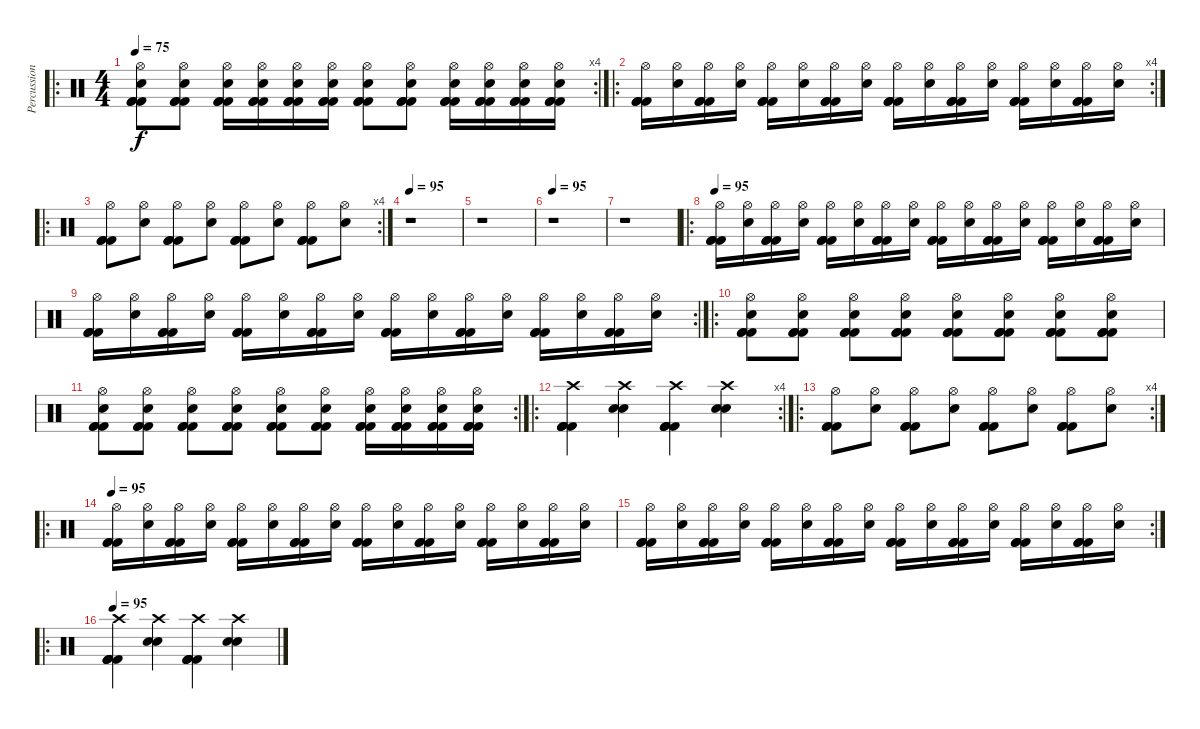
\track ("Percussion" "Percussion") {instrument percussion}
\staff {score}
\articulation defaults
\ro
\rc 4
\ts (4 4)
\tempo 75
\clef neutral
\ks c
("Hi-Hat (open)" "Snare (hit) 2" "Kick (hit) 2" "Kick (hit) 2" "Kick (hit) 2").8{dy f} ("Hi-Hat (open)" "Snare (hit) 2" "Kick (hit) 2" "Kick (hit) 2" "Kick (hit) 2").8 ("Hi-Hat (open)" "Snare (hit) 2" "Kick (hit) 2" "Kick (hit) 2" "Kick (hit) 2").16 ("Hi-Hat (open)" "Snare (hit) 2" "Kick (hit) 2" "Kick (hit) 2" "Kick (hit) 2").16 ("Hi-Hat (open)" "Snare (hit) 2" "Kick (hit) 2" "Kick (hit) 2" "Kick (hit) 2").16 ("Hi-Hat (open)" "Snare (hit) 2" "Kick (hit) 2" "Kick (hit) 2" "Kick (hit) 2").16 ("Hi-Hat (open)" "Snare (hit) 2" "Kick (hit) 2" "Kick (hit) 2" "Kick (hit) 2").8 ("Hi-Hat (open)" "Snare (hit) 2" "Kick (hit) 2" "Kick (hit) 2" "Kick (hit) 2").8 ("Hi-Hat (open)" "Snare (hit) 2" "Kick (hit) 2" "Kick (hit) 2" "Kick (hit) 2").16 ("Hi-Hat (open)" "Snare (hit) 2" "Kick (hit) 2" "Kick (hit) 2" "Kick (hit) 2").16 ("Hi-Hat (open)" "Snare (hit) 2" "Kick (hit) 2" "Kick (hit) 2" "Kick (hit) 2").16 ("Hi-Hat (open)" "Snare (hit) 2" "Kick (hit) 2" "Kick (hit) 2" "Kick (hit) 2").16 |
\ro
\rc 4
("Hi-Hat (open)" "Kick (hit) 2" "Kick (hit) 2" "Kick (hit) 2").16 ("Hi-Hat (open)" "Snare (hit) 2").16 ("Hi-Hat (open)" "Kick (hit) 2" "Kick (hit) 2" "Kick (hit) 2").16 ("Hi-Hat (open)" "Snare (hit) 2").16 ("Hi-Hat (open)" "Kick (hit) 2" "Kick (hit) 2" "Kick (hit) 2").16 ("Hi-Hat (open)" "Snare (hit) 2").16 ("Hi-Hat (open)" "Kick (hit) 2" "Kick (hit) 2" "Kick (hit) 2").16 ("Hi-Hat (open)" "Snare (hit) 2").16 ("Hi-Hat (open)" "Kick (hit) 2" "Kick (hit) 2" "Kick (hit) 2").16 ("Hi-Hat (open)" "Snare (hit) 2").16 ("Hi-Hat (open)" "Kick (hit) 2" "Kick (hit) 2" "Kick (hit) 2").16 ("Hi-Hat (open)" "Snare (hit) 2").16 ("Hi-Hat (open)" "Kick (hit) 2" "Kick (hit) 2" "Kick (hit) 2").16 ("Hi-Hat (open)" "Snare (hit) 2").16 ("Hi-Hat (open)" "Kick (hit) 2" "Kick (hit) 2" "Kick (hit) 2").16 ("Hi-Hat (open)" "Snare (hit) 2").16 |
\ro
\rc 4
("Hi-Hat (open)" "Kick (hit) 2" "Kick (hit) 2" "Kick (hit) 2").8 ("Hi-Hat (open)" "Snare (hit) 2").8 ("Hi-Hat (open)" "Kick (hit) 2" "Kick (hit) 2" "Kick (hit) 2").8 ("Hi-Hat (open)" "Snare (hit) 2").8 ("Hi-Hat (open)" "Kick (hit) 2" "Kick (hit) 2" "Kick (hit) 2").8 ("Hi-Hat (open)" "Snare (hit) 2").8 ("Hi-Hat (open)" "Kick (hit) 2" "Kick (hit) 2" "Kick (hit) 2").8 ("Hi-Hat (open)" "Snare (hit) 2").8 |
\tempo 95
r.1 |
r.1 |
\tempo 95
r.1 |
r.1 |
\ro
\tempo 95
("Hi-Hat (open)" "Kick (hit) 2" "Kick (hit) 2" "Kick (hit) 2").16 ("Hi-Hat (open)" "Snare (hit) 2").16 ("Hi-Hat (open)" "Kick (hit) 2" "Kick (hit) 2" "Kick (hit) 2").16 ("Hi-Hat (open)" "Snare (hit) 2").16 ("Hi-Hat (open)" "Kick (hit) 2" "Kick (hit) 2" "Kick (hit) 2").16 ("Hi-Hat (open)" "Snare (hit) 2").16 ("Hi-Hat (open)" "Kick (hit) 2" "Kick (hit) 2" "Kick (hit) 2").16 ("Hi-Hat (open)" "Snare (hit) 2").16 ("Hi-Hat (open)" "Kick (hit) 2" "Kick (hit) 2" "Kick (hit) 2").16 ("Hi-Hat (open)" "Snare (hit) 2").16 ("Hi-Hat (open)" "Kick (hit) 2" "Kick (hit) 2" "Kick (hit) 2").16 ("Hi-Hat (open)" "Snare (hit) 2").16 ("Hi-Hat (open)" "Kick (hit) 2" "Kick (hit) 2" "Kick (hit) 2").16 ("Hi-Hat (open)" "Snare (hit) 2").16 ("Hi-Hat (open)" "Kick (hit) 2" "Kick (hit) 2" "Kick (hit) 2").16 ("Hi-Hat (open)" "Snare (hit) 2").16 |
\rc 2
("Hi-Hat (open)" "Kick (hit) 2" "Kick (hit) 2" "Kick (hit) 2").16 ("Hi-Hat (open)" "Snare (hit) 2").16 ("Hi-Hat (open)" "Kick (hit) 2" "Kick (hit) 2" "Kick (hit) 2").16 ("Hi-Hat (open)" "Snare (hit) 2").16 ("Hi-Hat (open)" "Kick (hit) 2" "Kick (hit) 2" "Kick (hit) 2").16 ("Hi-Hat (open)" "Snare (hit) 2").16 ("Hi-Hat (open)" "Kick (hit) 2" "Kick (hit) 2" "Kick (hit) 2").16 ("Hi-Hat (open)" "Snare (hit) 2").16 ("Hi-Hat (open)" "Kick (hit) 2" "Kick (hit) 2" "Kick (hit) 2").16 ("Hi-Hat (open)" "Snare (hit) 2").16 ("Hi-Hat (open)" "Kick (hit) 2" "Kick (hit) 2" "Kick (hit) 2").16 ("Hi-Hat (open)" "Snare (hit) 2").16 ("Hi-Hat (open)" "Kick (hit) 2" "Kick (hit) 2" "Kick (hit) 2").16 ("Hi-Hat (open)" "Snare (hit) 2").16 ("Hi-Hat (open)" "Kick (hit) 2" "Kick (hit) 2" "Kick (hit) 2").16 ("Hi-Hat (open)" "Snare (hit) 2").16 |
\ro
("Hi-Hat (open)" "Snare (hit) 2" "Kick (hit) 2" "Kick (hit) 2" "Kick (hit) 2").8 ("Hi-Hat (open)" "Snare (hit) 2" "Kick (hit) 2" "Kick (hit) 2" "Kick (hit) 2").8 ("Hi-Hat (open)" "Snare (hit) 2" "Kick (hit) 2" "Kick (hit) 2" "Kick (hit) 2").8 ("Hi-Hat (open)" "Snare (hit) 2" "Kick (hit) 2" "Kick (hit) 2" "Kick (hit) 2").8 ("Hi-Hat (open)" "Snare (hit) 2" "Kick (hit) 2" "Kick (hit) 2" "Kick (hit) 2").8 ("Hi-Hat (open)" "Snare (hit) 2" "Kick (hit) 2" "Kick (hit) 2" "Kick (hit) 2").8 ("Hi-Hat (open)" "Snare (hit) 2" "Kick (hit) 2" "Kick (hit) 2" "Kick (hit) 2").8 ("Hi-Hat (open)" "Snare (hit) 2" "Kick (hit) 2" "Kick (hit) 2" "Kick (hit) 2").8 |
\rc 2
("Hi-Hat (open)" "Snare (hit) 2" "Kick (hit) 2" "Kick (hit) 2" "Kick (hit) 2").8 ("Hi-Hat (open)" "Snare (hit) 2" "Kick (hit) 2" "Kick (hit) 2" "Kick (hit) 2").8 ("Hi-Hat (open)" "Snare (hit) 2" "Kick (hit) 2" "Kick (hit) 2" "Kick (hit) 2").8 ("Hi-Hat (open)" "Snare (hit) 2" "Kick (hit) 2" "Kick (hit) 2" "Kick (hit) 2").8 ("Hi-Hat (open)" "Snare (hit) 2" "Kick (hit) 2" "Kick (hit) 2" "Kick (hit) 2").8 ("Hi-Hat (open)" "Snare (hit) 2" "Kick (hit) 2" "Kick (hit) 2" "Kick (hit) 2").8 ("Hi-Hat (open)" "Snare (hit) 2" "Kick (hit) 2" "Kick (hit) 2" "Kick (hit) 2").16 ("Hi-Hat (open)" "Snare (hit) 2" "Kick (hit) 2" "Kick (hit) 2" "Kick (hit) 2").16 ("Hi-Hat (open)" "Snare (hit) 2" "Kick (hit) 2" "Kick (hit) 2" "Kick (hit) 2").16 ("Hi-Hat (open)" "Snare (hit) 2" "Kick (hit) 2" "Kick (hit) 2" "Kick (hit) 2").16 |
\ro
\rc 4
("Crash high (hit)" "Kick (hit) 2" "Kick (hit) 2" "Kick (hit) 2" "Kick (hit) 2").4 ("Crash high (hit)" "Snare (hit) 2" "Snare (hit) 2").4 ("Crash high (hit)" "Kick (hit) 2" "Kick (hit) 2" "Kick (hit) 2" "Kick (hit) 2").4 ("Crash high (hit)" "Snare (hit) 2" "Snare (hit) 2").4 |
\ro
\rc 4
("Hi-Hat (open)" "Kick (hit) 2" "Kick (hit) 2" "Kick (hit) 2").8 ("Hi-Hat (open)" "Snare (hit) 2").8 ("Hi-Hat (open)" "Kick (hit) 2" "Kick (hit) 2" "Kick (hit) 2").8 ("Hi-Hat (open)" "Snare (hit) 2").8 ("Hi-Hat (open)" "Kick (hit) 2" "Kick (hit) 2" "Kick (hit) 2").8 ("Hi-Hat (open)" "Snare (hit) 2").8 ("Hi-Hat (open)" "Kick (hit) 2" "Kick (hit) 2" "Kick (hit) 2").8 ("Hi-Hat (open)" "Snare (hit) 2").8 |
\ro
\tempo 95
("Hi-Hat (open)" "Kick (hit) 2" "Kick (hit) 2" "Kick (hit) 2").16 ("Hi-Hat (open)" "Snare (hit) 2").16 ("Hi-Hat (open)" "Kick (hit) 2" "Kick (hit) 2" "Kick (hit) 2").16 ("Hi-Hat (open)" "Snare (hit) 2").16 ("Hi-Hat (open)" "Kick (hit) 2" "Kick (hit) 2" "Kick (hit) 2").16 ("Hi-Hat (open)" "Snare (hit) 2").16 ("Hi-Hat (open)" "Kick (hit) 2" "Kick (hit) 2" "Kick (hit) 2").16 ("Hi-Hat (open)" "Snare (hit) 2").16 ("Hi-Hat (open)" "Kick (hit) 2" "Kick (hit) 2" "Kick (hit) 2").16 ("Hi-Hat (open)" "Snare (hit) 2").16 ("Hi-Hat (open)" "Kick (hit) 2" "Kick (hit) 2" "Kick (hit) 2").16 ("Hi-Hat (open)" "Snare (hit) 2").16 ("Hi-Hat (open)" "Kick (hit) 2" "Kick (hit) 2" "Kick (hit) 2").16 ("Hi-Hat (open)" "Snare (hit) 2").16 ("Hi-Hat (open)" "Kick (hit) 2" "Kick (hit) 2" "Kick (hit) 2").16 ("Hi-Hat (open)" "Snare (hit) 2").16 |
\rc 2
("Hi-Hat (open)" "Kick (hit) 2" "Kick (hit) 2" "Kick (hit) 2").16 ("Hi-Hat (open)" "Snare (hit) 2").16 ("Hi-Hat (open)" "Kick (hit) 2" "Kick (hit) 2" "Kick (hit) 2").16 ("Hi-Hat (open)" "Snare (hit) 2").16 ("Hi-Hat (open)" "Kick (hit) 2" "Kick (hit) 2" "Kick (hit) 2").16 ("Hi-Hat (open)" "Snare (hit) 2").16 ("Hi-Hat (open)" "Kick (hit) 2" "Kick (hit) 2" "Kick (hit) 2").16 ("Hi-Hat (open)" "Snare (hit) 2").16 ("Hi-Hat (open)" "Kick (hit) 2" "Kick (hit) 2" "Kick (hit) 2").16 ("Hi-Hat (open)" "Snare (hit) 2").16 ("Hi-Hat (open)" "Kick (hit) 2" "Kick (hit) 2" "Kick (hit) 2").16 ("Hi-Hat (open)" "Snare (hit) 2").16 ("Hi-Hat (open)" "Kick (hit) 2" "Kick (hit) 2" "Kick (hit) 2").16 ("Hi-Hat (open)" "Snare (hit) 2").16 ("Hi-Hat (open)" "Kick (hit) 2" "Kick (hit) 2" "Kick (hit) 2").16 ("Hi-Hat (open)" "Snare (hit) 2").16 |
\ro
\tempo 95
("Crash high (hit)" "Kick (hit) 2" "Kick (hit) 2" "Kick (hit) 2" "Kick (hit) 2").4 ("Crash high (hit)" "Snare (hit) 2" "Snare (hit) 2").4 ("Crash high (hit)" "Kick (hit) 2" "Kick (hit) 2" "Kick (hit) 2" "Kick (hit) 2").4 ("Crash high (hit)" "Snare (hit) 2" "Snare (hit) 2").4
